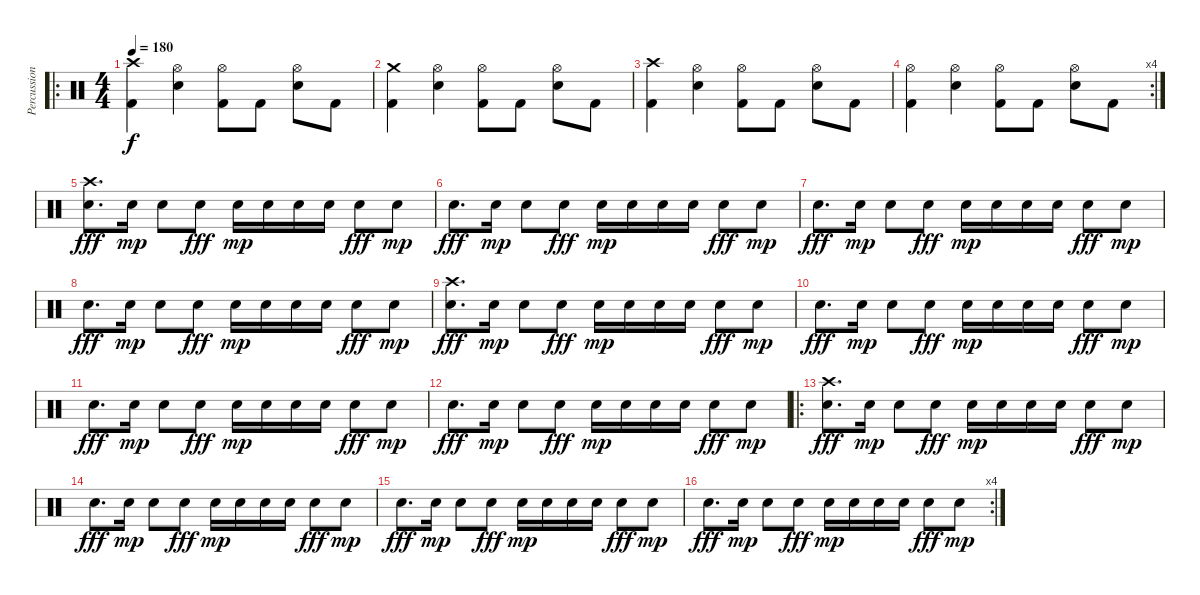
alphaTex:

\track ("Percussion" "Percussion") {instrument percussion}
\staff {score}
\articulation defaults
\ro
\ts (4 4)
\tempo 180
\clef neutral
\ks c
("Crash high (hit)" "Kick (hit) 2").4{dy f volume 13} ("Hi-Hat (open)" "Electric Snare (hit)").4 ("Hi-Hat (open)" "Kick (hit) 2").8 "Kick (hit) 2".8 ("Hi-Hat (open)" "Electric Snare (hit)").8 "Kick (hit) 2".8 |
("Crash medium (hit)" "Kick (hit) 2").4 ("Hi-Hat (open)" "Electric Snare (hit)").4 ("Hi-Hat (open)" "Kick (hit) 2").8 "Kick (hit) 2".8 ("Hi-Hat (open)" "Electric Snare (hit)").8 "Kick (hit) 2".8 |
("Crash high (hit)" "Kick (hit) 2").4 ("Hi-Hat (open)" "Electric Snare (hit)").4 ("Hi-Hat (open)" "Kick (hit) 2").8 "Kick (hit) 2".8 ("Hi-Hat (open)" "Electric Snare (hit)").8 "Kick (hit) 2".8 |
\rc 4
("Hi-Hat (open)" "Kick (hit) 2").4 ("Hi-Hat (open)" "Electric Snare (hit)").4 ("Hi-Hat (open)" "Kick (hit) 2").8 "Kick (hit) 2".8 ("Hi-Hat (open)" "Electric Snare (hit)").8 "Kick (hit) 2".8 |
("Crash high (hit)" "Electric Snare (hit)").8{d dy fff} "Electric Snare (hit)".16{dy mp} "Electric Snare (hit)".8 "Electric Snare (hit)".8{dy fff} "Electric Snare (hit)".16{dy mp} "Electric Snare (hit)".16 "Electric Snare (hit)".16 "Electric Snare (hit)".16 "Electric Snare (hit)".8{dy fff} "Electric Snare (hit)".8{dy mp} |
"Electric Snare (hit)".8{d dy fff} "Electric Snare (hit)".16{dy mp} "Electric Snare (hit)".8 "Electric Snare (hit)".8{dy fff} "Electric Snare (hit)".16{dy mp} "Electric Snare (hit)".16 "Electric Snare (hit)".16 "Electric Snare (hit)".16 "Electric Snare (hit)".8{dy fff} "Electric Snare (hit)".8{dy mp} |
"Electric Snare (hit)".8{d dy fff} "Electric Snare (hit)".16{dy mp} "Electric Snare (hit)".8 "Electric Snare (hit)".8{dy fff} "Electric Snare (hit)".16{dy mp} "Electric Snare (hit)".16 "Electric Snare (hit)".16 "Electric Snare (hit)".16 "Electric Snare (hit)".8{dy fff} "Electric Snare (hit)".8{dy mp} |
"Electric Snare (hit)".8{d dy fff} "Electric Snare (hit)".16{dy mp} "Electric Snare (hit)".8 "Electric Snare (hit)".8{dy fff} "Electric Snare (hit)".16{dy mp} "Electric Snare (hit)".16 "Electric Snare (hit)".16 "Electric Snare (hit)".16 "Electric Snare (hit)".8{dy fff} "Electric Snare (hit)".8{dy mp} |
("Crash high (hit)" "Electric Snare (hit)").8{d dy fff} "Electric Snare (hit)".16{dy mp} "Electric Snare (hit)".8 "Electric Snare (hit)".8{dy fff} "Electric Snare (hit)".16{dy mp} "Electric Snare (hit)".16 "Electric Snare (hit)".16 "Electric Snare (hit)".16 "Electric Snare (hit)".8{dy fff} "Electric Snare (hit)".8{dy mp} |
"Electric Snare (hit)".8{d dy fff} "Electric Snare (hit)".16{dy mp} "Electric Snare (hit)".8 "Electric Snare (hit)".8{dy fff} "Electric Snare (hit)".16{dy mp} "Electric Snare (hit)".16 "Electric Snare (hit)".16 "Electric Snare (hit)".16 "Electric Snare (hit)".8{dy fff} "Electric Snare (hit)".8{dy mp} |
"Electric Snare (hit)".8{d dy fff} "Electric Snare (hit)".16{dy mp} "Electric Snare (hit)".8 "Electric Snare (hit)".8{dy fff} "Electric Snare (hit)".16{dy mp} "Electric Snare (hit)".16 "Electric Snare (hit)".16 "Electric Snare (hit)".16 "Electric Snare (hit)".8{dy fff} "Electric Snare (hit)".8{dy mp} |
"Electric Snare (hit)".8{d dy fff} "Electric Snare (hit)".16{dy mp} "Electric Snare (hit)".8 "Electric Snare (hit)".8{dy fff} "Electric Snare (hit)".16{dy mp} "Electric Snare (hit)".16 "Electric Snare (hit)".16 "Electric Snare (hit)".16 "Electric Snare (hit)".8{dy fff} "Electric Snare (hit)".8{dy mp} |
\ro
("Crash high (hit)" "Electric Snare (hit)").8{d dy fff} "Electric Snare (hit)".16{dy mp} "Electric Snare (hit)".8 "Electric Snare (hit)".8{dy fff} "Electric Snare (hit)".16{dy mp} "Electric Snare (hit)".16 "Electric Snare (hit)".16 "Electric Snare (hit)".16 "Electric Snare (hit)".8{dy fff} "Electric Snare (hit)".8{dy mp} |
"Electric Snare (hit)".8{d dy fff} "Electric Snare (hit)".16{dy mp} "Electric Snare (hit)".8 "Electric Snare (hit)".8{dy fff} "Electric Snare (hit)".16{dy mp} "Electric Snare (hit)".16 "Electric Snare (hit)".16 "Electric Snare (hit)".16 "Electric Snare (hit)".8{dy fff} "Electric Snare (hit)".8{dy mp} |
"Electric Snare (hit)".8{d dy fff} "Electric Snare (hit)".16{dy mp} "Electric Snare (hit)".8 "Electric Snare (hit)".8{dy fff} "Electric Snare (hit)".16{dy mp} "Electric Snare (hit)".16 "Electric Snare (hit)".16 "Electric Snare (hit)".16 "Electric Snare (hit)".8{dy fff} "Electric Snare (hit)".8{dy mp} |
\rc 4 "Electric Snare (hit)".8{d dy fff} "Electric Snare (hit)".16{dy mp} "Electric Snare (hit)".8 "Electric Snare (hit)".8{dy fff} "Electric Snare (hit)".16{dy mp} "Electric Snare (hit)".16 "Electric Snare (hit)".16 "Electric Snare (hit)".16 "Electric Snare (hit)".8{dy fff} "Electric Snare (hit)".8{dy mp}
